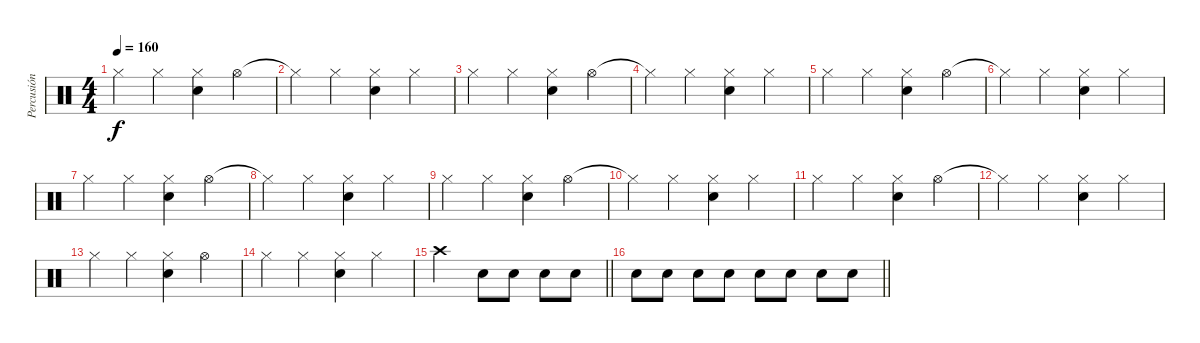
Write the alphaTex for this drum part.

\track ("Percusión" "Percusión") {instrument percussion}
\staff {score}
\articulation defaults
\ts (4 4)
\tempo 160
\clef neutral
\ks c "Hi-Hat (closed)".4{dy f} "Hi-Hat (closed)".4
("Electric Snare (hit)" "Hi-Hat (closed)").4 "Hi-Hat (open)".4 |
"Hi-Hat (closed)"{t}.4 "Hi-Hat (closed)".4 ("Electric Snare (hit)" "Hi-Hat (closed)").4 "Hi-Hat (closed)".4 |
"Hi-Hat (closed)".4 "Hi-Hat (closed)".4 ("Electric Snare (hit)" "Hi-Hat (closed)").4 "Hi-Hat (open)".4 |
"Hi-Hat (closed)"{t}.4 "Hi-Hat (closed)".4 ("Electric Snare (hit)" "Hi-Hat (closed)").4 "Hi-Hat (closed)".4 |
"Hi-Hat (closed)".4 "Hi-Hat (closed)".4 ("Electric Snare (hit)" "Hi-Hat (closed)").4 "Hi-Hat (open)".4 |
"Hi-Hat (closed)"{t}.4 "Hi-Hat (closed)".4 ("Electric Snare (hit)" "Hi-Hat (closed)").4 "Hi-Hat (closed)".4 |
"Hi-Hat (closed)".4 "Hi-Hat (closed)".4 ("Electric Snare (hit)" "Hi-Hat (closed)").4 "Hi-Hat (open)".4 |
"Hi-Hat (closed)"{t}.4 "Hi-Hat (closed)".4 ("Electric Snare (hit)" "Hi-Hat (closed)").4 "Hi-Hat (closed)".4 |
"Hi-Hat (closed)".4 "Hi-Hat (closed)".4 ("Electric Snare (hit)" "Hi-Hat (closed)").4 "Hi-Hat (open)".4 |
"Hi-Hat (closed)"{t}.4 "Hi-Hat (closed)".4 ("Electric Snare (hit)" "Hi-Hat (closed)").4 "Hi-Hat (closed)".4 |
"Hi-Hat (closed)".4 "Hi-Hat (closed)".4 ("Electric Snare (hit)" "Hi-Hat (closed)").4 "Hi-Hat (open)".4 |
"Hi-Hat (closed)"{t}.4 "Hi-Hat (closed)".4 ("Electric Snare (hit)" "Hi-Hat (closed)").4 "Hi-Hat (closed)".4 |
"Hi-Hat (closed)".4 "Hi-Hat (closed)".4 ("Electric Snare (hit)" "Hi-Hat (closed)").4 "Hi-Hat (open)".4 |
"Hi-Hat (closed)".4 "Hi-Hat (closed)".4 ("Electric Snare (hit)" "Hi-Hat (closed)").4 "Hi-Hat (closed)".4 |
\barLineRight lightlight "Crash high (hit)".2 "Electric Snare (hit)".8 "Electric Snare (hit)".8 "Electric Snare (hit)".8 "Electric Snare (hit)".8
|
\barLineRight lightlight "Electric Snare (hit)".8 "Electric Snare (hit)".8 "Electric Snare (hit)".8 "Electric Snare (hit)".8 "Electric Snare (hit)".8 "Electric Snare (hit)".8 "Electric Snare (hit)".8 "Electric Snare (hit)".8
